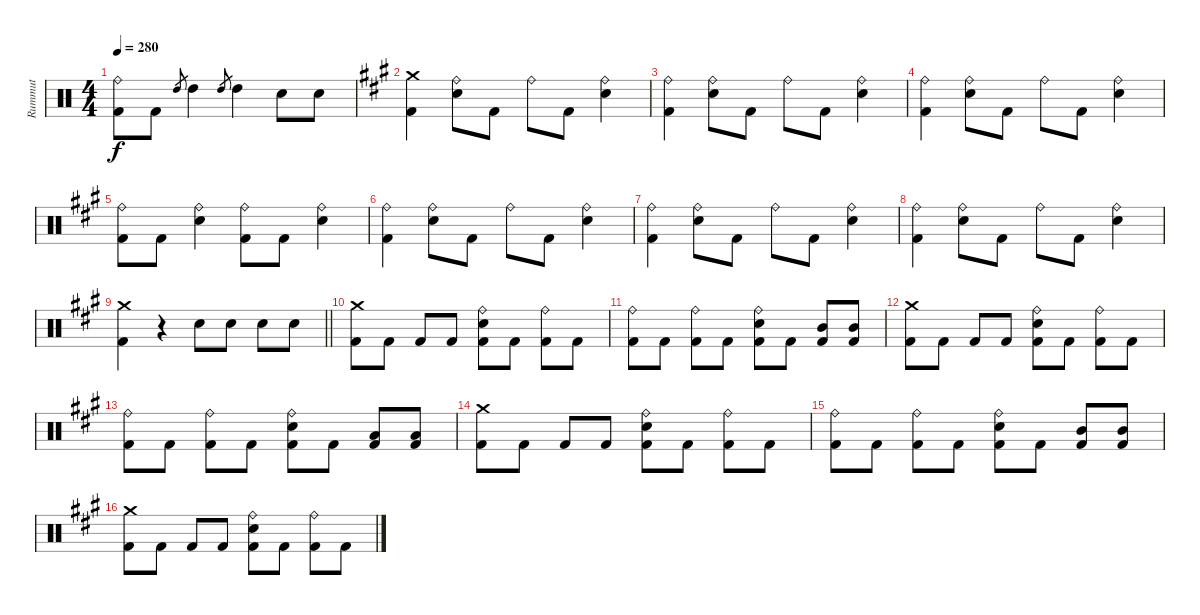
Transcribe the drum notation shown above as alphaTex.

\track ("Rummut" "Rummut") {instrument percussion}
\staff {score}
\articulation defaults
\ts (4 4)
\tempo 280
\clef neutral
\ks c
("Ride (bell)" "Kick (hit) 2").8{dy f} "Kick (hit) 2".8 "High Tom (hit)".8{gr} "High Tom (hit)".4 "High Tom (hit)".8{gr} "High Tom (hit)".4 "Snare (hit) 2".8 "Snare (hit) 2".8 |
\ks a
("Crash medium (hit)" "Kick (hit) 2").4 ("Ride (bell)" "Snare (hit) 2").8 "Kick (hit) 2".8 "Ride (bell)".8 "Kick (hit) 2".8 ("Ride (bell)" "Snare (hit) 2").4 |
("Ride (bell)" "Kick (hit) 2").4 ("Ride (bell)" "Snare (hit) 2").8 "Kick (hit) 2".8 "Ride (bell)".8 "Kick (hit) 2".8 ("Ride (bell)" "Snare (hit) 2").4 |
("Ride (bell)" "Kick (hit) 2").4 ("Ride (bell)" "Snare (hit) 2").8 "Kick (hit) 2".8 "Ride (bell)".8 "Kick (hit) 2".8 ("Ride (bell)" "Snare (hit) 2").4 |
("Ride (bell)" "Kick (hit) 2").8 "Kick (hit) 2".8 ("Ride (bell)" "Snare (hit) 2").4 ("Ride (bell)" "Kick (hit) 2").8 "Kick (hit) 2".8 ("Ride (bell)" "Snare (hit) 2").4 |
("Ride (bell)" "Kick (hit) 2").4 ("Ride (bell)" "Snare (hit) 2").8 "Kick (hit) 2".8 "Ride (bell)".8 "Kick (hit) 2".8 ("Ride (bell)" "Snare (hit) 2").4 |
("Ride (bell)" "Kick (hit) 2").4 ("Ride (bell)" "Snare (hit) 2").8 "Kick (hit) 2".8 "Ride (bell)".8 "Kick (hit) 2".8 ("Ride (bell)" "Snare (hit) 2").4 |
("Ride (bell)" "Kick (hit) 2").4 ("Ride (bell)" "Snare (hit) 2").8 "Kick (hit) 2".8 "Ride (bell)".8 "Kick (hit) 2".8 ("Ride (bell)" "Snare (hit) 2").4 |
\barLineRight lightlight
("Crash medium (hit)" "Kick (hit) 2").4 r.4 "Snare (hit) 2".8 "Snare (hit) 2".8 "Snare (hit) 2".8 "Snare (hit) 2".8 |
("Crash medium (hit)" "Kick (hit) 2").8 "Kick (hit) 2".8 "Kick (hit) 2".8 "Kick (hit) 2".8 ("Ride (bell)" "Snare (hit) 2" "Kick (hit) 2").8 "Kick (hit) 2".8 ("Ride (bell)" "Kick (hit) 2").8 "Kick (hit) 2".8 |
("Ride (bell)" "Kick (hit) 2").8 "Kick (hit) 2".8 ("Ride (bell)" "Kick (hit) 2").8 "Kick (hit) 2".8 ("Ride (bell)" "Snare (hit) 2" "Kick (hit) 2").8 "Kick (hit) 2".8 ("Mid Tom (hit)" "Kick (hit) 2").8 ("Mid Tom (hit)" "Kick (hit) 2").8 |
("Crash medium (hit)" "Kick (hit) 2").8 "Kick (hit) 2".8 "Kick (hit) 2".8 "Kick (hit) 2".8 ("Ride (bell)" "Snare (hit) 2" "Kick (hit) 2").8 "Kick (hit) 2".8 ("Ride (bell)" "Kick (hit) 2").8 "Kick (hit) 2".8 |
("Ride (bell)" "Kick (hit) 2").8 "Kick (hit) 2".8 ("Ride (bell)" "Kick (hit) 2").8 "Kick (hit) 2".8 ("Ride (bell)" "Snare (hit) 2" "Kick (hit) 2").8 "Kick (hit) 2".8 ("Low Tom (hit)" "Kick (hit) 2").8 ("Low Tom (hit)" "Kick (hit) 2").8 |
("Crash medium (hit)" "Kick (hit) 2").8 "Kick (hit) 2".8 "Kick (hit) 2".8 "Kick (hit) 2".8 ("Ride (bell)" "Snare (hit) 2" "Kick (hit) 2").8 "Kick (hit) 2".8 ("Ride (bell)" "Kick (hit) 2").8 "Kick (hit) 2".8 |
("Ride (bell)" "Kick (hit) 2").8 "Kick (hit) 2".8 ("Ride (bell)" "Kick (hit) 2").8 "Kick (hit) 2".8 ("Ride (bell)" "Snare (hit) 2" "Kick (hit) 2").8 "Kick (hit) 2".8 ("Mid Tom (hit)" "Kick (hit) 2").8 ("Mid Tom (hit)" "Kick (hit) 2").8 |
("Crash medium (hit)" "Kick (hit) 2").8 "Kick (hit) 2".8 "Kick (hit) 2".8 "Kick (hit) 2".8 ("Ride (bell)" "Snare (hit) 2" "Kick (hit) 2").8 "Kick (hit) 2".8 ("Ride (bell)" "Kick (hit) 2").8 "Kick (hit) 2".8
